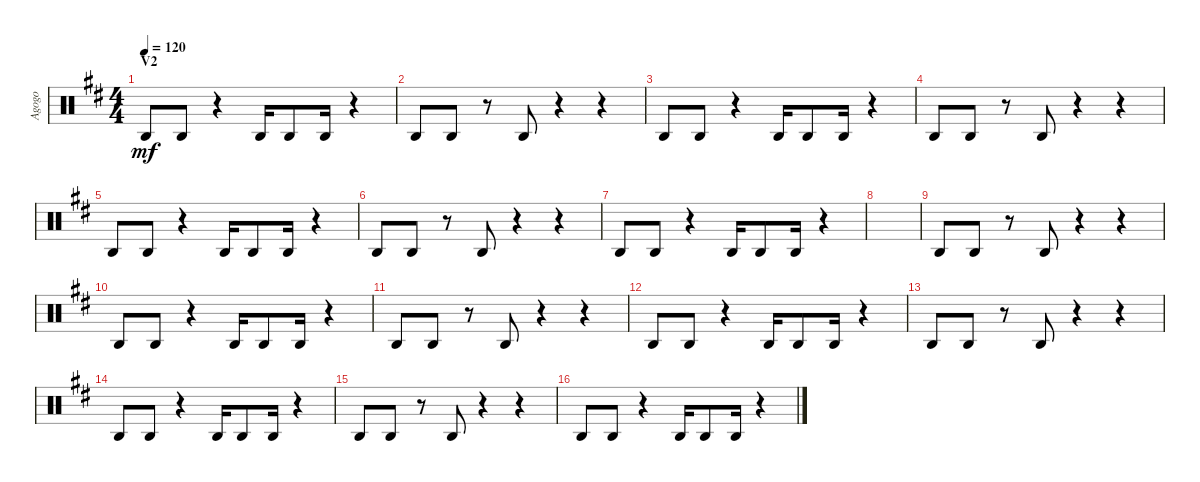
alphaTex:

\track ("Agogo" "Agogo") {instrument percussion}
\staff {score}
\articulation defaults
\ts (4 4)
\section ("" "V2")
\tempo 120
\clef neutral
\ks d "Agogo high (hit)".8{dy mf} "Agogo high (hit)".8
r.4 "Agogo high (hit)".16 "Agogo high (hit)".8 "Agogo high (hit)".16 r.4 |
"Agogo high (hit)".8 "Agogo high (hit)".8 r.8 "Agogo high (hit)".8 r.4 r.4 |
"Agogo high (hit)".8 "Agogo high (hit)".8 r.4 "Agogo high (hit)".16 "Agogo high (hit)".8 "Agogo high (hit)".16 r.4 |
"Agogo high (hit)".8 "Agogo high (hit)".8 r.8 "Agogo high (hit)".8 r.4 r.4 |
"Agogo high (hit)".8 "Agogo high (hit)".8 r.4 "Agogo high (hit)".16 "Agogo high (hit)".8 "Agogo high (hit)".16 r.4 |
"Agogo high (hit)".8 "Agogo high (hit)".8 r.8 "Agogo high (hit)".8 r.4 r.4 |
"Agogo high (hit)".8 "Agogo high (hit)".8 r.4 "Agogo high (hit)".16 "Agogo high (hit)".8 "Agogo high (hit)".16 r.4 |
|
"Agogo high (hit)".8 "Agogo high (hit)".8 r.8 "Agogo high (hit)".8 r.4 r.4 |
"Agogo high (hit)".8 "Agogo high (hit)".8 r.4 "Agogo high (hit)".16 "Agogo high (hit)".8 "Agogo high (hit)".16 r.4 |
"Agogo high (hit)".8 "Agogo high (hit)".8 r.8 "Agogo high (hit)".8 r.4 r.4 |
"Agogo high (hit)".8 "Agogo high (hit)".8 r.4 "Agogo high (hit)".16 "Agogo high (hit)".8 "Agogo high (hit)".16 r.4 |
"Agogo high (hit)".8 "Agogo high (hit)".8 r.8 "Agogo high (hit)".8 r.4 r.4 |
"Agogo high (hit)".8 "Agogo high (hit)".8 r.4 "Agogo high (hit)".16 "Agogo high (hit)".8 "Agogo high (hit)".16 r.4 |
"Agogo high (hit)".8 "Agogo high (hit)".8 r.8 "Agogo high (hit)".8 r.4 r.4 |
"Agogo high (hit)".8 "Agogo high (hit)".8 r.4 "Agogo high (hit)".16 "Agogo high (hit)".8 "Agogo high (hit)".16 r.4
